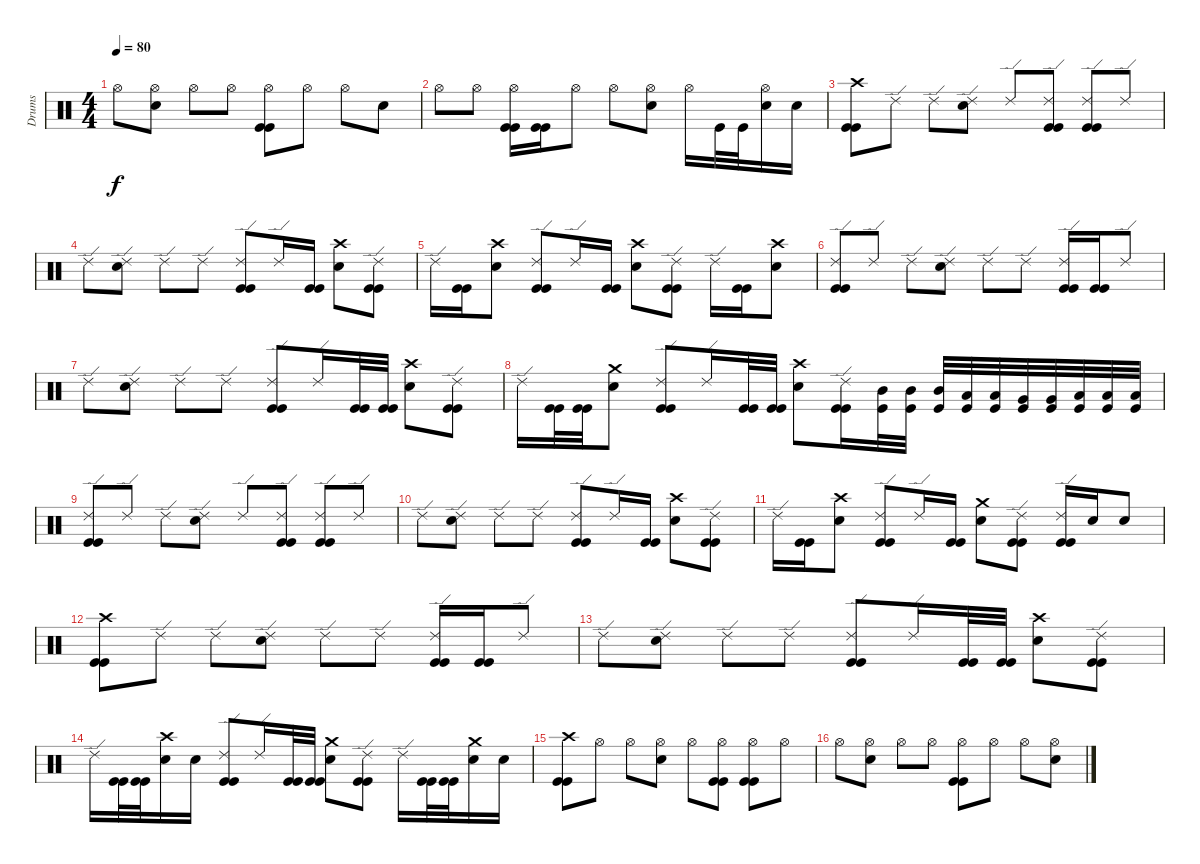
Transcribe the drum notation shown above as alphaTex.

\track ("Drums" "Drums") {instrument percussion}
\staff {score}
\articulation defaults
\ts (4 4)
\tempo 80
\clef neutral
\ks c "Hi-Hat (open)".8{dy f}
("Electric Snare (hit)" "Hi-Hat (open)").8 "Hi-Hat (open)".8 "Hi-Hat (open)".8 ("Kick (hit)" "Kick (hit)" "Hi-Hat (open)").8 "Hi-Hat (open)".8 "Hi-Hat (open)".8 "Electric Snare (hit)".8 |
"Hi-Hat (open)".8 "Hi-Hat (open)".8 ("Kick (hit)" "Kick (hit)" "Hi-Hat (open)").16 ("Kick (hit)" "Kick (hit)").16 "Hi-Hat (open)".8 "Hi-Hat (open)".8 ("Electric Snare (hit)" "Hi-Hat (open)").8 "Hi-Hat (open)".16 "Kick (hit)".32 "Kick (hit)".32 ("Electric Snare (hit)" "Hi-Hat (open)").16 "Electric Snare (hit)".16 |
("Kick (hit)" "Kick (hit)" "Crash high (hit)").8 "Ride (edge) 2".8 "Ride (edge) 2".8 ("Electric Snare (hit)" "Ride (edge) 2").8 "Ride (edge) 2".8 ("Kick (hit)" "Kick (hit)" "Ride (edge) 2").8 ("Kick (hit)" "Kick (hit)" "Ride (edge) 2").8 "Ride (edge) 2".8 |
"Ride (edge) 2".8 ("Electric Snare (hit)" "Ride (edge) 2").8 "Ride (edge) 2".8 "Ride (edge) 2".8 ("Kick (hit)" "Kick (hit)" "Ride (edge) 2").8 "Ride (edge) 2".16 ("Kick (hit)" "Kick (hit)").16 ("Electric Snare (hit)" "Crash high (hit)").8 ("Kick (hit)" "Kick (hit)" "Ride (edge) 2").8 |
"Ride (edge) 2".16 ("Kick (hit)" "Kick (hit)").16 ("Electric Snare (hit)" "Crash high (hit)").8 ("Kick (hit)" "Kick (hit)" "Ride (edge) 2").8 "Ride (edge) 2".16 ("Kick (hit)" "Kick (hit)").16 ("Electric Snare (hit)" "Crash high (hit)").8 ("Kick (hit)" "Kick (hit)" "Ride (edge) 2").8 "Ride (edge) 2".16 ("Kick (hit)" "Kick (hit)").16 ("Electric Snare (hit)" "Crash high (hit)").8 |
("Kick (hit)" "Kick (hit)" "Ride (edge) 2").8 "Ride (edge) 2".8 "Ride (edge) 2".8 ("Electric Snare (hit)" "Ride (edge) 2").8 "Ride (edge) 2".8 "Ride (edge) 2".8 ("Kick (hit)" "Kick (hit)" "Ride (edge) 2").16 ("Kick (hit)" "Kick (hit)").16 "Ride (edge) 2".8 |
"Ride (edge) 2".8 ("Electric Snare (hit)" "Ride (edge) 2").8 "Ride (edge) 2".8 "Ride (edge) 2".8 ("Kick (hit)" "Kick (hit)" "Ride (edge) 2").8 "Ride (edge) 2".16 ("Kick (hit)" "Kick (hit)").32 ("Kick (hit)" "Kick (hit)").32 ("Electric Snare (hit)" "Crash high (hit)").8 ("Kick (hit)" "Kick (hit)" "Ride (edge) 2").8 |
"Ride (edge) 2".16 ("Kick (hit)" "Kick (hit)").32 ("Kick (hit)" "Kick (hit)").32 ("Electric Snare (hit)" "Crash medium (hit)").8 ("Kick (hit)" "Kick (hit)" "Ride (edge) 2").8 "Ride (edge) 2".16 ("Kick (hit)" "Kick (hit)").32 ("Kick (hit)" "Kick (hit)").32 ("Electric Snare (hit)" "Crash high (hit)").8 ("Kick (hit)" "Kick (hit)" "Ride (edge) 2").16 ("Kick (hit)" "Mid Tom (hit)").32 ("Kick (hit)" "Mid Tom (hit)").32 ("Kick (hit)" "Mid Tom (hit)").32 ("Kick (hit)" "Low Tom (hit)").32 ("Kick (hit)" "Low Tom (hit)").32 ("Kick (hit)" "Very Low Tom (hit)").32 ("Kick (hit)" "Very Low Tom (hit)").32 ("Kick (hit)" "Low Floor Tom (hit)").32 ("Kick (hit)" "Low Floor Tom (hit)").32 ("Kick (hit)" "Low Floor Tom (hit)").32 |
("Kick (hit)" "Kick (hit)" "Ride (edge) 2").8 "Ride (edge) 2".8 "Ride (edge) 2".8 ("Electric Snare (hit)" "Ride (edge) 2").8 "Ride (edge) 2".8 ("Kick (hit)" "Kick (hit)" "Ride (edge) 2").8 ("Kick (hit)" "Kick (hit)" "Ride (edge) 2").8 "Ride (edge) 2".8 |
"Ride (edge) 2".8 ("Electric Snare (hit)" "Ride (edge) 2").8 "Ride (edge) 2".8 "Ride (edge) 2".8 ("Kick (hit)" "Kick (hit)" "Ride (edge) 2").8 "Ride (edge) 2".16 ("Kick (hit)" "Kick (hit)").16 ("Electric Snare (hit)" "Crash high (hit)").8 ("Kick (hit)" "Kick (hit)" "Ride (edge) 2").8 |
"Ride (edge) 2".16 ("Kick (hit)" "Kick (hit)").16 ("Electric Snare (hit)" "Crash high (hit)").8 ("Kick (hit)" "Kick (hit)" "Ride (edge) 2").8 "Ride (edge) 2".16 ("Kick (hit)" "Kick (hit)").16 ("Electric Snare (hit)" "Crash medium (hit)").8 ("Kick (hit)" "Kick (hit)" "Ride (edge) 2").8 ("Kick (hit)" "Kick (hit)" "Ride (edge) 2").16 "Electric Snare (hit)".16 "Electric Snare (hit)".8 |
("Kick (hit)" "Kick (hit)" "Crash high (hit)").8 "Ride (edge) 2".8 "Ride (edge) 2".8 ("Electric Snare (hit)" "Ride (edge) 2").8 "Ride (edge) 2".8 "Ride (edge) 2".8 ("Kick (hit)" "Kick (hit)" "Ride (edge) 2").16 ("Kick (hit)" "Kick (hit)").16 "Ride (edge) 2".8 |
"Ride (edge) 2".8 ("Electric Snare (hit)" "Ride (edge) 2").8 "Ride (edge) 2".8 "Ride (edge) 2".8 ("Kick (hit)" "Kick (hit)" "Ride (edge) 2").8 "Ride (edge) 2".16 ("Kick (hit)" "Kick (hit)").32 ("Kick (hit)" "Kick (hit)").32 ("Electric Snare (hit)" "Crash high (hit)").8 ("Kick (hit)" "Kick (hit)" "Ride (edge) 2").8 |
"Ride (edge) 2".16 ("Kick (hit)" "Kick (hit)").32 ("Kick (hit)" "Kick (hit)").32 ("Electric Snare (hit)" "Crash high (hit)").16 "Electric Snare (hit)".16 ("Kick (hit)" "Kick (hit)" "Ride (edge) 2").8 "Ride (edge) 2".16 ("Kick (hit)" "Kick (hit)").32 ("Kick (hit)" "Kick (hit)").32 ("Electric Snare (hit)" "Crash medium (hit)").8 ("Kick (hit)" "Kick (hit)" "Ride (edge) 2").8 "Ride (edge) 2".16 ("Kick (hit)" "Kick (hit)").32 ("Kick (hit)" "Kick (hit)").32 ("Electric Snare (hit)" "Crash medium (hit)").16 "Electric Snare (hit)".16 |
("Kick (hit)" "Kick (hit)" "Crash high (hit)").8 "Hi-Hat (open)".8 "Hi-Hat (open)".8 ("Electric Snare (hit)" "Hi-Hat (open)").8 "Hi-Hat (open)".8 ("Kick (hit)" "Kick (hit)" "Hi-Hat (open)").8 ("Kick (hit)" "Kick (hit)" "Hi-Hat (open)").8 "Hi-Hat (open)".8 |
"Hi-Hat (open)".8 ("Electric Snare (hit)" "Hi-Hat (open)").8 "Hi-Hat (open)".8 "Hi-Hat (open)".8 ("Kick (hit)" "Kick (hit)" "Hi-Hat (open)").8 "Hi-Hat (open)".8 "Hi-Hat (open)".8 ("Electric Snare (hit)" "Hi-Hat (open)").8
